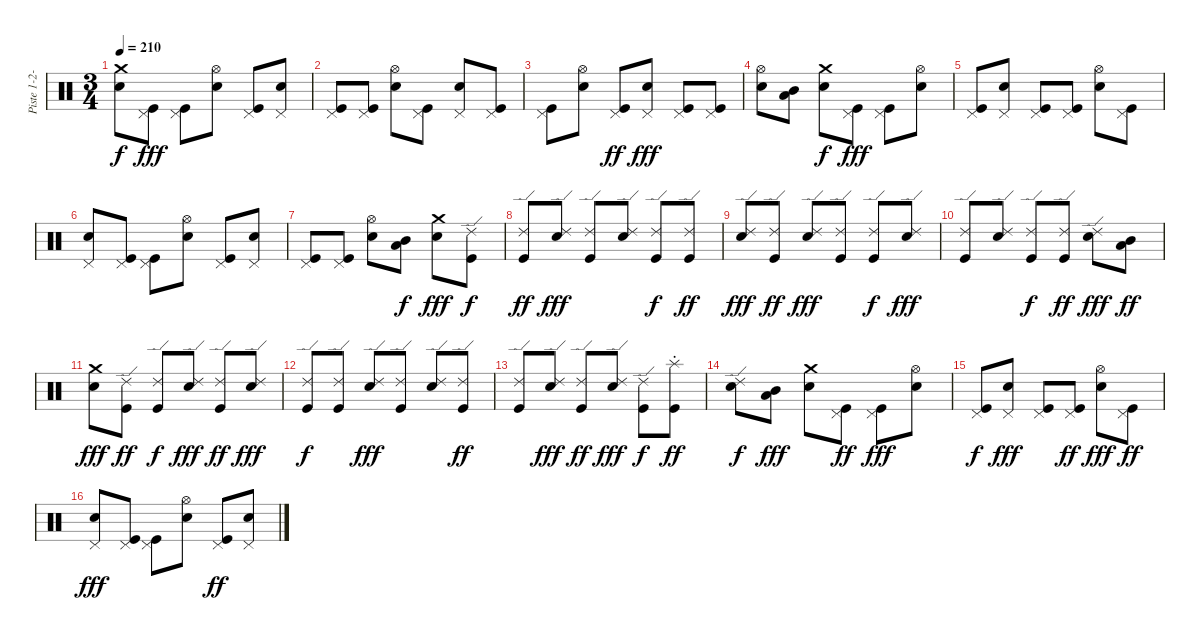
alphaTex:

\track ("Piste 1-2-3-4" "Piste 1-2-") {instrument percussion}
\staff {score}
\articulation defaults
\ts (3 4)
\tempo 210
\tempo 140
\tempo 210
\clef neutral
\ks c
("Crash medium (hit)" "Snare (hit) 2").8{dy f} ("Pedal Hi-Hat (hit)" "Kick (hit)").8{dy fff} ("Pedal Hi-Hat (hit)" "Kick (hit)").8 ("Hi-Hat (open)" "Snare (hit) 2").8 ("Pedal Hi-Hat (hit)" "Kick (hit)").8 ("Pedal Hi-Hat (hit)" "Snare (hit) 2").8 |
("Pedal Hi-Hat (hit)" "Kick (hit)").8 ("Pedal Hi-Hat (hit)" "Kick (hit)").8 ("Hi-Hat (open)" "Snare (hit) 2").8 ("Pedal Hi-Hat (hit)" "Kick (hit)").8 ("Pedal Hi-Hat (hit)" "Snare (hit) 2").8 ("Pedal Hi-Hat (hit)" "Kick (hit)").8 |
("Pedal Hi-Hat (hit)" "Kick (hit)").8 ("Hi-Hat (open)" "Snare (hit) 2").8 ("Pedal Hi-Hat (hit)" "Kick (hit)").8{dy ff} ("Pedal Hi-Hat (hit)" "Snare (hit) 2").8{dy fff} ("Pedal Hi-Hat (hit)" "Kick (hit)").8 ("Pedal Hi-Hat (hit)" "Kick (hit)").8 |
("Hi-Hat (open)" "Snare (hit) 2").8 ("Low Tom (hit)" "Mid Tom (hit)").8 ("Crash medium (hit)" "Snare (hit) 2").8{dy f} ("Pedal Hi-Hat (hit)" "Kick (hit)").8{dy fff} ("Pedal Hi-Hat (hit)" "Kick (hit)").8 ("Hi-Hat (open)" "Snare (hit) 2").8 |
("Pedal Hi-Hat (hit)" "Kick (hit)").8 ("Pedal Hi-Hat (hit)" "Snare (hit) 2").8 ("Pedal Hi-Hat (hit)" "Kick (hit)").8 ("Pedal Hi-Hat (hit)" "Kick (hit)").8 ("Hi-Hat (open)" "Snare (hit) 2").8 ("Pedal Hi-Hat (hit)" "Kick (hit)").8 |
("Pedal Hi-Hat (hit)" "Snare (hit) 2").8 ("Pedal Hi-Hat (hit)" "Kick (hit)").8 ("Pedal Hi-Hat (hit)" "Kick (hit)").8 ("Hi-Hat (open)" "Snare (hit) 2").8 ("Pedal Hi-Hat (hit)" "Kick (hit)").8 ("Pedal Hi-Hat (hit)" "Snare (hit) 2").8 |
("Pedal Hi-Hat (hit)" "Kick (hit)").8 ("Pedal Hi-Hat (hit)" "Kick (hit)").8 ("Hi-Hat (open)" "Snare (hit) 2").8 ("Low Tom (hit)" "Mid Tom (hit)").8{dy f} ("Crash medium (hit)" "Snare (hit) 2").8{dy fff} ("Ride (edge) 2" "Kick (hit)").8{dy f} |
("Ride (edge) 2" "Kick (hit)").8{dy ff} ("Ride (edge) 2" "Snare (hit) 2").8{dy fff} ("Ride (edge) 2" "Kick (hit)").8 ("Ride (edge) 2" "Snare (hit) 2").8 ("Ride (edge) 2" "Kick (hit)").8{dy f} ("Ride (edge) 2" "Kick (hit)").8{dy ff} |
("Ride (edge) 2" "Snare (hit) 2").8{dy fff} ("Ride (edge) 2" "Kick (hit)").8{dy ff} ("Ride (edge) 2" "Snare (hit) 2").8{dy fff} ("Ride (edge) 2" "Kick (hit)").8 ("Ride (edge) 2" "Kick (hit)").8{dy f} ("Ride (edge) 2" "Snare (hit) 2").8{dy fff} |
("Ride (edge) 2" "Kick (hit)").8 ("Ride (edge) 2" "Snare (hit) 2").8 ("Ride (edge) 2" "Kick (hit)").8{dy f} ("Ride (edge) 2" "Kick (hit)").8{dy ff} ("Ride (edge) 2" "Snare (hit) 2").8{dy fff} ("Low Tom (hit)" "Mid Tom (hit)").8{dy ff} |
("Crash medium (hit)" "Snare (hit) 2").8{dy fff} ("Ride (edge) 2" "Kick (hit)").8{dy ff} ("Ride (edge) 2" "Kick (hit)").8{dy f} ("Ride (edge) 2" "Snare (hit) 2").8{dy fff} ("Ride (edge) 2" "Kick (hit)").8{dy ff} ("Ride (edge) 2" "Snare (hit) 2").8{dy fff} |
("Ride (edge) 2" "Kick (hit)").8{dy f} ("Ride (edge) 2" "Kick (hit)").8 ("Ride (edge) 2" "Snare (hit) 2").8{dy fff} ("Ride (edge) 2" "Kick (hit)").8 ("Ride (edge) 2" "Snare (hit) 2").8 ("Ride (edge) 2" "Kick (hit)").8{dy ff} |
("Ride (edge) 2" "Kick (hit)").8 ("Ride (edge) 2" "Snare (hit) 2").8{dy fff} ("Ride (edge) 2" "Kick (hit)").8{dy ff} ("Ride (edge) 2" "Snare (hit) 2").8{dy fff} ("Ride (edge) 2" "Kick (hit)").8{dy f} ("Splash (choke)" "Kick (hit)").8{dy ff} |
("Ride (edge) 2" "Snare (hit) 2").8{dy f} ("Low Tom (hit)" "Mid Tom (hit)").8{dy fff} ("Crash medium (hit)" "Snare (hit) 2").8 ("Pedal Hi-Hat (hit)" "Kick (hit)").8{dy ff} ("Pedal Hi-Hat (hit)" "Kick (hit)").8{dy fff} ("Hi-Hat (open)" "Snare (hit) 2").8 |
("Pedal Hi-Hat (hit)" "Kick (hit)").8{dy f} ("Pedal Hi-Hat (hit)" "Snare (hit) 2").8{dy fff} ("Pedal Hi-Hat (hit)" "Kick (hit)").8 ("Pedal Hi-Hat (hit)" "Kick (hit)").8{dy ff} ("Hi-Hat (open)" "Snare (hit) 2").8{dy fff} ("Pedal Hi-Hat (hit)" "Kick (hit)").8{dy ff} |
("Pedal Hi-Hat (hit)" "Snare (hit) 2").8{dy fff} ("Pedal Hi-Hat (hit)" "Kick (hit)").8 ("Pedal Hi-Hat (hit)" "Kick (hit)").8 ("Hi-Hat (open)" "Snare (hit) 2").8 ("Pedal Hi-Hat (hit)" "Kick (hit)").8{dy ff} ("Pedal Hi-Hat (hit)" "Snare (hit) 2").8
